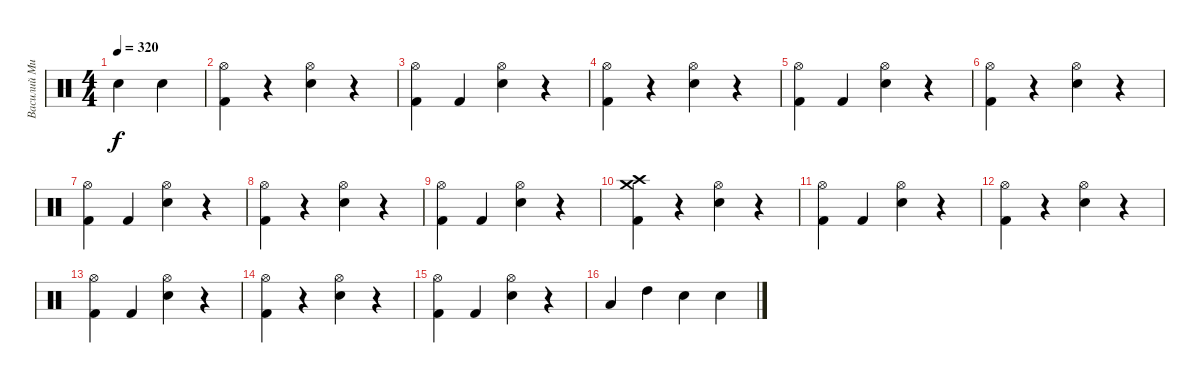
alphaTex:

\track ("Василий Михалыч-ударные" "Василий Ми") {instrument percussion}
\staff {score}
\articulation defaults
\ts (4 4)
\tempo 320
\clef neutral
\ks c "Snare (hit) 2".4{dy f} "Snare (hit) 2".4
|
("Kick (hit) 2" "Hi-Hat (open)").4 r.4 ("Snare (hit) 2" "Hi-Hat (open)").4 r.4 |
("Kick (hit) 2" "Hi-Hat (open)").4 "Kick (hit) 2".4 ("Snare (hit) 2" "Hi-Hat (open)").4 r.4 |
("Kick (hit) 2" "Hi-Hat (open)").4 r.4 ("Snare (hit) 2" "Hi-Hat (open)").4 r.4 |
("Kick (hit) 2" "Hi-Hat (open)").4 "Kick (hit) 2".4 ("Snare (hit) 2" "Hi-Hat (open)").4 r.4 |
("Kick (hit) 2" "Hi-Hat (open)").4 r.4 ("Snare (hit) 2" "Hi-Hat (open)").4 r.4 |
("Kick (hit) 2" "Hi-Hat (open)").4 "Kick (hit) 2".4 ("Snare (hit) 2" "Hi-Hat (open)").4 r.4 |
("Kick (hit) 2" "Hi-Hat (open)").4 r.4 ("Snare (hit) 2" "Hi-Hat (open)").4 r.4 |
("Kick (hit) 2" "Hi-Hat (open)").4 "Kick (hit) 2".4 ("Snare (hit) 2" "Hi-Hat (open)").4 r.4 |
("Kick (hit) 2" "Crash high (hit)" "Crash medium (hit)").4 r.4 ("Snare (hit) 2" "Hi-Hat (open)").4 r.4 |
("Kick (hit) 2" "Hi-Hat (open)").4 "Kick (hit) 2".4 ("Snare (hit) 2" "Hi-Hat (open)").4 r.4 |
("Kick (hit) 2" "Hi-Hat (open)").4 r.4 ("Snare (hit) 2" "Hi-Hat (open)").4 r.4 |
("Kick (hit) 2" "Hi-Hat (open)").4 "Kick (hit) 2".4 ("Snare (hit) 2" "Hi-Hat (open)").4 r.4 |
("Kick (hit) 2" "Hi-Hat (open)").4 r.4 ("Snare (hit) 2" "Hi-Hat (open)").4 r.4 |
("Kick (hit) 2" "Hi-Hat (open)").4 "Kick (hit) 2".4 ("Snare (hit) 2" "Hi-Hat (open)").4 r.4 |
"Low Tom (hit)".4 "High Tom (hit)".4 "Snare (hit) 2".4 "Snare (hit) 2".4
